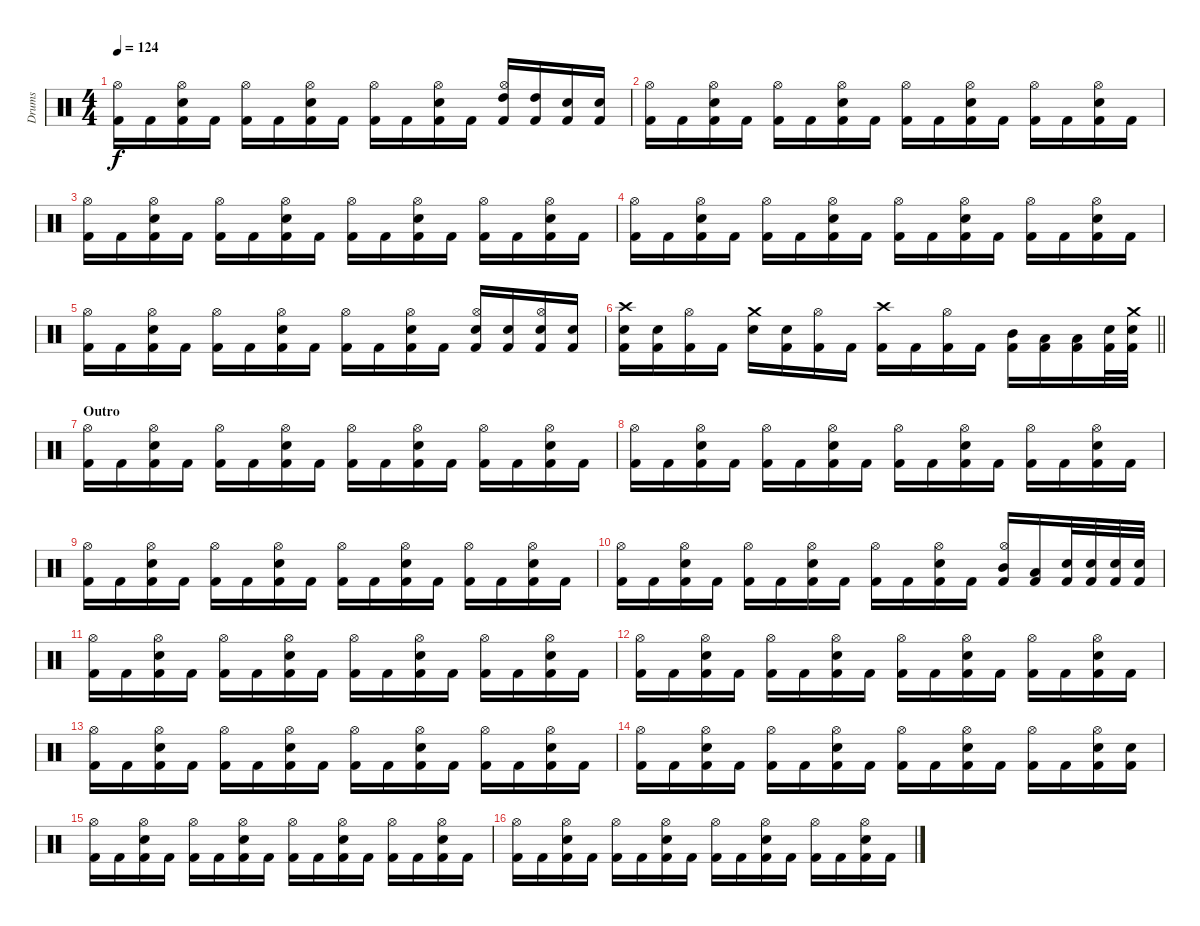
\track ("Drums" "Drums") {instrument percussion}
\staff {score}
\articulation defaults
\ts (4 4)
\tempo 124
\clef neutral
\ks c
("Kick (hit) 2" "Hi-Hat (open)").16{dy f} "Kick (hit) 2".16 ("Kick (hit) 2" "Hi-Hat (open)" "Snare (hit) 2").16 "Kick (hit) 2".16 ("Kick (hit) 2" "Hi-Hat (open)").16 "Kick (hit) 2".16 ("Kick (hit) 2" "Hi-Hat (open)" "Snare (hit) 2").16 "Kick (hit) 2".16 ("Kick (hit) 2" "Hi-Hat (open)").16 "Kick (hit) 2".16 ("Kick (hit) 2" "Hi-Hat (open)" "Snare (hit) 2").16 "Kick (hit) 2".16 ("Kick (hit) 2" "High Tom (hit)" "Hi-Hat (open)").16 ("Kick (hit) 2" "High Tom (hit)").16 ("Kick (hit) 2" "Snare (hit) 2").16 ("Kick (hit) 2" "Snare (hit) 2").16 |
("Kick (hit) 2" "Hi-Hat (open)").16 "Kick (hit) 2".16 ("Kick (hit) 2" "Hi-Hat (open)" "Snare (hit) 2").16 "Kick (hit) 2".16 ("Kick (hit) 2" "Hi-Hat (open)").16 "Kick (hit) 2".16 ("Kick (hit) 2" "Hi-Hat (open)" "Snare (hit) 2").16 "Kick (hit) 2".16 ("Kick (hit) 2" "Hi-Hat (open)").16 "Kick (hit) 2".16 ("Kick (hit) 2" "Hi-Hat (open)" "Snare (hit) 2").16 "Kick (hit) 2".16 ("Kick (hit) 2" "Hi-Hat (open)").16 "Kick (hit) 2".16 ("Kick (hit) 2" "Hi-Hat (open)" "Snare (hit) 2").16 "Kick (hit) 2".16 |
("Kick (hit) 2" "Hi-Hat (open)").16 "Kick (hit) 2".16 ("Kick (hit) 2" "Hi-Hat (open)" "Snare (hit) 2").16 "Kick (hit) 2".16 ("Kick (hit) 2" "Hi-Hat (open)").16 "Kick (hit) 2".16 ("Kick (hit) 2" "Hi-Hat (open)" "Snare (hit) 2").16 "Kick (hit) 2".16 ("Kick (hit) 2" "Hi-Hat (open)").16 "Kick (hit) 2".16 ("Kick (hit) 2" "Hi-Hat (open)" "Snare (hit) 2").16 "Kick (hit) 2".16 ("Kick (hit) 2" "Hi-Hat (open)").16 "Kick (hit) 2".16 ("Kick (hit) 2" "Hi-Hat (open)" "Snare (hit) 2").16 "Kick (hit) 2".16 |
("Kick (hit) 2" "Hi-Hat (open)").16 "Kick (hit) 2".16 ("Kick (hit) 2" "Hi-Hat (open)" "Snare (hit) 2").16 "Kick (hit) 2".16 ("Kick (hit) 2" "Hi-Hat (open)").16 "Kick (hit) 2".16 ("Kick (hit) 2" "Hi-Hat (open)" "Snare (hit) 2").16 "Kick (hit) 2".16 ("Kick (hit) 2" "Hi-Hat (open)").16 "Kick (hit) 2".16 ("Kick (hit) 2" "Hi-Hat (open)" "Snare (hit) 2").16 "Kick (hit) 2".16 ("Kick (hit) 2" "Hi-Hat (open)").16 "Kick (hit) 2".16 ("Kick (hit) 2" "Hi-Hat (open)" "Snare (hit) 2").16 "Kick (hit) 2".16 |
("Kick (hit) 2" "Hi-Hat (open)").16 "Kick (hit) 2".16 ("Kick (hit) 2" "Hi-Hat (open)" "Snare (hit) 2").16 "Kick (hit) 2".16 ("Kick (hit) 2" "Hi-Hat (open)").16 "Kick (hit) 2".16 ("Kick (hit) 2" "Hi-Hat (open)" "Snare (hit) 2").16 "Kick (hit) 2".16 ("Kick (hit) 2" "Hi-Hat (open)").16 "Kick (hit) 2".16 ("Kick (hit) 2" "Hi-Hat (open)" "Snare (hit) 2").16 "Kick (hit) 2".16 ("Kick (hit) 2" "Snare (hit) 2" "Hi-Hat (open)").16 ("Kick (hit) 2" "Snare (hit) 2").16 ("Kick (hit) 2" "Hi-Hat (open)" "Electric Snare (hit)").16 ("Kick (hit) 2" "Electric Snare (hit)").16 |
\barLineRight lightlight
("Crash high (hit)" "Kick (hit) 2" "Snare (hit) 2").16 ("Kick (hit) 2" "Snare (hit) 2").16 ("Kick (hit) 2" "Hi-Hat (open)").16 "Kick (hit) 2".16 ("Crash medium (hit)" "Snare (hit) 2").16 ("Kick (hit) 2" "Snare (hit) 2").16 ("Kick (hit) 2" "Hi-Hat (open)").16 "Kick (hit) 2".16 ("Kick (hit) 2" "Crash high (hit)").16 "Kick (hit) 2".16 ("Kick (hit) 2" "Hi-Hat (open)").16 "Kick (hit) 2".16 ("Kick (hit) 2" "Mid Tom (hit)").16 ("Kick (hit) 2" "Low Tom (hit)").16 ("Kick (hit) 2" "Low Floor Tom (hit)").16 ("Kick (hit) 2" "Snare (hit) 2").32 ("Snare (hit) 2" "Kick (hit) 2" "Crash medium (hit)").32 |
\section ("" "Outro")
("Hi-Hat (open)" "Kick (hit) 2").16 "Kick (hit) 2".16 ("Snare (hit) 2" "Kick (hit) 2" "Hi-Hat (open)").16 "Kick (hit) 2".16 ("Hi-Hat (open)" "Kick (hit) 2").16 "Kick (hit) 2".16 ("Snare (hit) 2" "Kick (hit) 2" "Hi-Hat (open)").16 "Kick (hit) 2".16 ("Hi-Hat (open)" "Kick (hit) 2").16 "Kick (hit) 2".16 ("Snare (hit) 2" "Kick (hit) 2" "Hi-Hat (open)").16 "Kick (hit) 2".16 ("Hi-Hat (open)" "Kick (hit) 2").16 "Kick (hit) 2".16 ("Snare (hit) 2" "Kick (hit) 2" "Hi-Hat (open)").16 "Kick (hit) 2".16 |
("Hi-Hat (open)" "Kick (hit) 2").16 "Kick (hit) 2".16 ("Snare (hit) 2" "Kick (hit) 2" "Hi-Hat (open)").16 "Kick (hit) 2".16 ("Hi-Hat (open)" "Kick (hit) 2").16 "Kick (hit) 2".16 ("Snare (hit) 2" "Kick (hit) 2" "Hi-Hat (open)").16 "Kick (hit) 2".16 ("Hi-Hat (open)" "Kick (hit) 2").16 "Kick (hit) 2".16 ("Snare (hit) 2" "Kick (hit) 2" "Hi-Hat (open)").16 "Kick (hit) 2".16 ("Hi-Hat (open)" "Kick (hit) 2").16 "Kick (hit) 2".16 ("Snare (hit) 2" "Kick (hit) 2" "Hi-Hat (open)").16 "Kick (hit) 2".16 |
("Hi-Hat (open)" "Kick (hit) 2").16 "Kick (hit) 2".16 ("Snare (hit) 2" "Kick (hit) 2" "Hi-Hat (open)").16 "Kick (hit) 2".16 ("Hi-Hat (open)" "Kick (hit) 2").16 "Kick (hit) 2".16 ("Snare (hit) 2" "Kick (hit) 2" "Hi-Hat (open)").16 "Kick (hit) 2".16 ("Hi-Hat (open)" "Kick (hit) 2").16 "Kick (hit) 2".16 ("Snare (hit) 2" "Kick (hit) 2" "Hi-Hat (open)").16 "Kick (hit) 2".16 ("Hi-Hat (open)" "Kick (hit) 2").16 "Kick (hit) 2".16 ("Snare (hit) 2" "Kick (hit) 2" "Hi-Hat (open)").16 "Kick (hit) 2".16 |
("Hi-Hat (open)" "Kick (hit) 2").16 "Kick (hit) 2".16 ("Snare (hit) 2" "Kick (hit) 2" "Hi-Hat (open)").16 "Kick (hit) 2".16 ("Hi-Hat (open)" "Kick (hit) 2").16 "Kick (hit) 2".16 ("Snare (hit) 2" "Kick (hit) 2" "Hi-Hat (open)").16 "Kick (hit) 2".16 ("Hi-Hat (open)" "Kick (hit) 2").16 "Kick (hit) 2".16 ("Snare (hit) 2" "Kick (hit) 2" "Hi-Hat (open)").16 "Kick (hit) 2".16 ("Hi-Hat (open)" "Kick (hit) 2" "Mid Tom (hit)").16 ("Low Tom (hit)" "Kick (hit) 2").16 ("Snare (hit) 2" "Kick (hit) 2").32 ("Snare (hit) 2" "Kick (hit) 2").32 ("Kick (hit) 2" "Snare (hit) 2").32 ("Kick (hit) 2" "Snare (hit) 2").32 |
("Hi-Hat (open)" "Kick (hit) 2").16 "Kick (hit) 2".16 ("Snare (hit) 2" "Kick (hit) 2" "Hi-Hat (open)").16 "Kick (hit) 2".16 ("Hi-Hat (open)" "Kick (hit) 2").16 "Kick (hit) 2".16 ("Snare (hit) 2" "Kick (hit) 2" "Hi-Hat (open)").16 "Kick (hit) 2".16 ("Hi-Hat (open)" "Kick (hit) 2").16 "Kick (hit) 2".16 ("Snare (hit) 2" "Kick (hit) 2" "Hi-Hat (open)").16 "Kick (hit) 2".16 ("Hi-Hat (open)" "Kick (hit) 2").16 "Kick (hit) 2".16 ("Snare (hit) 2" "Kick (hit) 2" "Hi-Hat (open)").16 "Kick (hit) 2".16 |
("Hi-Hat (open)" "Kick (hit) 2").16 "Kick (hit) 2".16 ("Snare (hit) 2" "Kick (hit) 2" "Hi-Hat (open)").16 "Kick (hit) 2".16 ("Hi-Hat (open)" "Kick (hit) 2").16 "Kick (hit) 2".16 ("Snare (hit) 2" "Kick (hit) 2" "Hi-Hat (open)").16 "Kick (hit) 2".16 ("Hi-Hat (open)" "Kick (hit) 2").16 "Kick (hit) 2".16 ("Snare (hit) 2" "Kick (hit) 2" "Hi-Hat (open)").16 "Kick (hit) 2".16 ("Hi-Hat (open)" "Kick (hit) 2").16 "Kick (hit) 2".16 ("Snare (hit) 2" "Kick (hit) 2" "Hi-Hat (open)").16 "Kick (hit) 2".16 |
("Hi-Hat (open)" "Kick (hit) 2").16 "Kick (hit) 2".16 ("Snare (hit) 2" "Kick (hit) 2" "Hi-Hat (open)").16 "Kick (hit) 2".16 ("Hi-Hat (open)" "Kick (hit) 2").16 "Kick (hit) 2".16 ("Snare (hit) 2" "Kick (hit) 2" "Hi-Hat (open)").16 "Kick (hit) 2".16 ("Hi-Hat (open)" "Kick (hit) 2").16 "Kick (hit) 2".16 ("Snare (hit) 2" "Kick (hit) 2" "Hi-Hat (open)").16 "Kick (hit) 2".16 ("Hi-Hat (open)" "Kick (hit) 2").16 "Kick (hit) 2".16 ("Snare (hit) 2" "Kick (hit) 2" "Hi-Hat (open)").16 "Kick (hit) 2".16 |
("Hi-Hat (open)" "Kick (hit) 2").16 "Kick (hit) 2".16 ("Snare (hit) 2" "Kick (hit) 2" "Hi-Hat (open)").16 "Kick (hit) 2".16 ("Hi-Hat (open)" "Kick (hit) 2").16 "Kick (hit) 2".16 ("Snare (hit) 2" "Kick (hit) 2" "Hi-Hat (open)").16 "Kick (hit) 2".16 ("Hi-Hat (open)" "Kick (hit) 2").16 "Kick (hit) 2".16 ("Snare (hit) 2" "Kick (hit) 2" "Hi-Hat (open)").16 "Kick (hit) 2".16 ("Hi-Hat (open)" "Kick (hit) 2").16 "Kick (hit) 2".16 ("Snare (hit) 2" "Kick (hit) 2" "Hi-Hat (open)").16 ("Snare (hit) 2" "Kick (hit) 2").16 |
("Hi-Hat (open)" "Kick (hit) 2").16 "Kick (hit) 2".16 ("Snare (hit) 2" "Kick (hit) 2" "Hi-Hat (open)").16 "Kick (hit) 2".16 ("Hi-Hat (open)" "Kick (hit) 2").16 "Kick (hit) 2".16 ("Snare (hit) 2" "Kick (hit) 2" "Hi-Hat (open)").16 "Kick (hit) 2".16 ("Hi-Hat (open)" "Kick (hit) 2").16 "Kick (hit) 2".16 ("Snare (hit) 2" "Kick (hit) 2" "Hi-Hat (open)").16 "Kick (hit) 2".16 ("Hi-Hat (open)" "Kick (hit) 2").16 "Kick (hit) 2".16 ("Snare (hit) 2" "Kick (hit) 2" "Hi-Hat (open)").16 "Kick (hit) 2".16 |
("Hi-Hat (open)" "Kick (hit) 2").16 "Kick (hit) 2".16 ("Snare (hit) 2" "Kick (hit) 2" "Hi-Hat (open)").16 "Kick (hit) 2".16 ("Hi-Hat (open)" "Kick (hit) 2").16 "Kick (hit) 2".16 ("Snare (hit) 2" "Kick (hit) 2" "Hi-Hat (open)").16 "Kick (hit) 2".16 ("Hi-Hat (open)" "Kick (hit) 2").16 "Kick (hit) 2".16 ("Snare (hit) 2" "Kick (hit) 2" "Hi-Hat (open)").16 "Kick (hit) 2".16 ("Hi-Hat (open)" "Kick (hit) 2").16 "Kick (hit) 2".16 ("Snare (hit) 2" "Kick (hit) 2" "Hi-Hat (open)").16 "Kick (hit) 2".16
